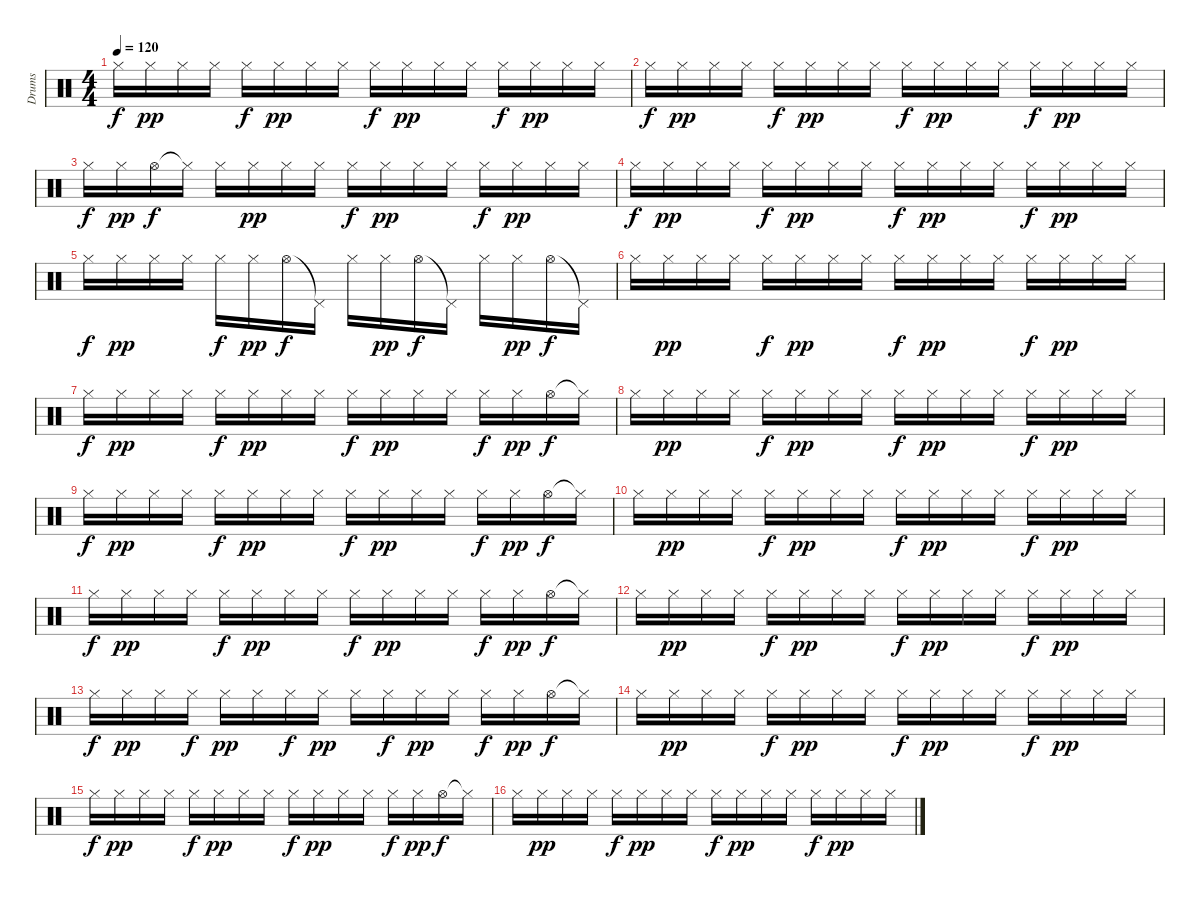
\track ("Drums" "Drums") {instrument percussion}
\staff {score}
\articulation defaults
\ts (4 4)
\tempo 120
\clef neutral
\ks c "Hi-Hat (closed)".16{dy f} "Hi-Hat (closed)".16{dy pp} "Hi-Hat (closed)".16 "Hi-Hat (closed)".16 "Hi-Hat (closed)".16{dy f} "Hi-Hat (closed)".16{dy pp} "Hi-Hat (closed)".16 "Hi-Hat (closed)".16 "Hi-Hat (closed)".16{dy f} "Hi-Hat (closed)".16{dy pp} "Hi-Hat (closed)".16 "Hi-Hat (closed)".16 "Hi-Hat (closed)".16{dy f} "Hi-Hat (closed)".16{dy pp} "Hi-Hat (closed)".16 "Hi-Hat (closed)".16
|
"Hi-Hat (closed)".16{dy f} "Hi-Hat (closed)".16{dy pp} "Hi-Hat (closed)".16 "Hi-Hat (closed)".16 "Hi-Hat (closed)".16{dy f} "Hi-Hat (closed)".16{dy pp} "Hi-Hat (closed)".16 "Hi-Hat (closed)".16 "Hi-Hat (closed)".16{dy f} "Hi-Hat (closed)".16{dy pp} "Hi-Hat (closed)".16 "Hi-Hat (closed)".16 "Hi-Hat (closed)".16{dy f} "Hi-Hat (closed)".16{dy pp} "Hi-Hat (closed)".16 "Hi-Hat (closed)".16 |
"Hi-Hat (closed)".16{dy f} "Hi-Hat (closed)".16{dy pp} "Hi-Hat (open)".16{dy f} "Hi-Hat (closed)"{t}.16 "Hi-Hat (closed)".16 "Hi-Hat (closed)".16{dy pp} "Hi-Hat (closed)".16 "Hi-Hat (closed)".16 "Hi-Hat (closed)".16{dy f} "Hi-Hat (closed)".16{dy pp} "Hi-Hat (closed)".16 "Hi-Hat (closed)".16 "Hi-Hat (closed)".16{dy f} "Hi-Hat (closed)".16{dy pp} "Hi-Hat (closed)".16 "Hi-Hat (closed)".16 |
"Hi-Hat (closed)".16{dy f} "Hi-Hat (closed)".16{dy pp} "Hi-Hat (closed)".16 "Hi-Hat (closed)".16 "Hi-Hat (closed)".16{dy f} "Hi-Hat (closed)".16{dy pp} "Hi-Hat (closed)".16 "Hi-Hat (closed)".16 "Hi-Hat (closed)".16{dy f} "Hi-Hat (closed)".16{dy pp} "Hi-Hat (closed)".16 "Hi-Hat (closed)".16 "Hi-Hat (closed)".16{dy f} "Hi-Hat (closed)".16{dy pp} "Hi-Hat (closed)".16 "Hi-Hat (closed)".16 |
"Hi-Hat (closed)".16{dy f} "Hi-Hat (closed)".16{dy pp} "Hi-Hat (closed)".16 "Hi-Hat (closed)".16 "Hi-Hat (closed)".16{dy f} "Hi-Hat (closed)".16{dy pp} "Hi-Hat (open)".16{dy f} "Pedal Hi-Hat (hit)"{t}.16 "Hi-Hat (closed)".16 "Hi-Hat (closed)".16{dy pp} "Hi-Hat (open)".16{dy f} "Pedal Hi-Hat (hit)"{t}.16 "Hi-Hat (closed)".16 "Hi-Hat (closed)".16{dy pp} "Hi-Hat (open)".16{dy f} "Pedal Hi-Hat (hit)"{t}.16 |
"Hi-Hat (closed)".16 "Hi-Hat (closed)".16{dy pp} "Hi-Hat (closed)".16 "Hi-Hat (closed)".16 "Hi-Hat (closed)".16{dy f} "Hi-Hat (closed)".16{dy pp} "Hi-Hat (closed)".16 "Hi-Hat (closed)".16 "Hi-Hat (closed)".16{dy f} "Hi-Hat (closed)".16{dy pp} "Hi-Hat (closed)".16 "Hi-Hat (closed)".16 "Hi-Hat (closed)".16{dy f} "Hi-Hat (closed)".16{dy pp} "Hi-Hat (closed)".16 "Hi-Hat (closed)".16 |
"Hi-Hat (closed)".16{dy f} "Hi-Hat (closed)".16{dy pp} "Hi-Hat (closed)".16 "Hi-Hat (closed)".16 "Hi-Hat (closed)".16{dy f} "Hi-Hat (closed)".16{dy pp} "Hi-Hat (closed)".16 "Hi-Hat (closed)".16 "Hi-Hat (closed)".16{dy f} "Hi-Hat (closed)".16{dy pp} "Hi-Hat (closed)".16 "Hi-Hat (closed)".16 "Hi-Hat (closed)".16{dy f} "Hi-Hat (closed)".16{dy pp} "Hi-Hat (open)".16{dy f} "Hi-Hat (closed)"{t}.16 |
"Hi-Hat (closed)".16 "Hi-Hat (closed)".16{dy pp} "Hi-Hat (closed)".16 "Hi-Hat (closed)".16 "Hi-Hat (closed)".16{dy f} "Hi-Hat (closed)".16{dy pp} "Hi-Hat (closed)".16 "Hi-Hat (closed)".16 "Hi-Hat (closed)".16{dy f} "Hi-Hat (closed)".16{dy pp} "Hi-Hat (closed)".16 "Hi-Hat (closed)".16 "Hi-Hat (closed)".16{dy f} "Hi-Hat (closed)".16{dy pp} "Hi-Hat (closed)".16 "Hi-Hat (closed)".16 |
"Hi-Hat (closed)".16{dy f} "Hi-Hat (closed)".16{dy pp} "Hi-Hat (closed)".16 "Hi-Hat (closed)".16 "Hi-Hat (closed)".16{dy f} "Hi-Hat (closed)".16{dy pp} "Hi-Hat (closed)".16 "Hi-Hat (closed)".16 "Hi-Hat (closed)".16{dy f} "Hi-Hat (closed)".16{dy pp} "Hi-Hat (closed)".16 "Hi-Hat (closed)".16 "Hi-Hat (closed)".16{dy f} "Hi-Hat (closed)".16{dy pp} "Hi-Hat (open)".16{dy f} "Hi-Hat (closed)"{t}.16 |
"Hi-Hat (closed)".16 "Hi-Hat (closed)".16{dy pp} "Hi-Hat (closed)".16 "Hi-Hat (closed)".16 "Hi-Hat (closed)".16{dy f} "Hi-Hat (closed)".16{dy pp} "Hi-Hat (closed)".16 "Hi-Hat (closed)".16 "Hi-Hat (closed)".16{dy f} "Hi-Hat (closed)".16{dy pp} "Hi-Hat (closed)".16 "Hi-Hat (closed)".16 "Hi-Hat (closed)".16{dy f} "Hi-Hat (closed)".16{dy pp} "Hi-Hat (closed)".16 "Hi-Hat (closed)".16 |
"Hi-Hat (closed)".16{dy f} "Hi-Hat (closed)".16{dy pp} "Hi-Hat (closed)".16 "Hi-Hat (closed)".16 "Hi-Hat (closed)".16{dy f} "Hi-Hat (closed)".16{dy pp} "Hi-Hat (closed)".16 "Hi-Hat (closed)".16 "Hi-Hat (closed)".16{dy f} "Hi-Hat (closed)".16{dy pp} "Hi-Hat (closed)".16 "Hi-Hat (closed)".16 "Hi-Hat (closed)".16{dy f} "Hi-Hat (closed)".16{dy pp} "Hi-Hat (open)".16{dy f} "Hi-Hat (closed)"{t}.16 |
"Hi-Hat (closed)".16 "Hi-Hat (closed)".16{dy pp} "Hi-Hat (closed)".16 "Hi-Hat (closed)".16 "Hi-Hat (closed)".16{dy f} "Hi-Hat (closed)".16{dy pp} "Hi-Hat (closed)".16 "Hi-Hat (closed)".16 "Hi-Hat (closed)".16{dy f} "Hi-Hat (closed)".16{dy pp} "Hi-Hat (closed)".16 "Hi-Hat (closed)".16 "Hi-Hat (closed)".16{dy f} "Hi-Hat (closed)".16{dy pp} "Hi-Hat (closed)".16 "Hi-Hat (closed)".16 |
"Hi-Hat (closed)".16{dy f} "Hi-Hat (closed)".16{dy pp} "Hi-Hat (closed)".16 "Hi-Hat (closed)".16{dy f} "Hi-Hat (closed)".16{dy pp} "Hi-Hat (closed)".16 "Hi-Hat (closed)".16{dy f} "Hi-Hat (closed)".16{dy pp} "Hi-Hat (closed)".16 "Hi-Hat (closed)".16{dy f} "Hi-Hat (closed)".16{dy pp} "Hi-Hat (closed)".16 "Hi-Hat (closed)".16{dy f} "Hi-Hat (closed)".16{dy pp} "Hi-Hat (open)".16{dy f} "Hi-Hat (closed)"{t}.16 |
"Hi-Hat (closed)".16 "Hi-Hat (closed)".16{dy pp} "Hi-Hat (closed)".16 "Hi-Hat (closed)".16 "Hi-Hat (closed)".16{dy f} "Hi-Hat (closed)".16{dy pp} "Hi-Hat (closed)".16 "Hi-Hat (closed)".16 "Hi-Hat (closed)".16{dy f} "Hi-Hat (closed)".16{dy pp} "Hi-Hat (closed)".16 "Hi-Hat (closed)".16 "Hi-Hat (closed)".16{dy f} "Hi-Hat (closed)".16{dy pp} "Hi-Hat (closed)".16 "Hi-Hat (closed)".16 |
"Hi-Hat (closed)".16{dy f} "Hi-Hat (closed)".16{dy pp} "Hi-Hat (closed)".16 "Hi-Hat (closed)".16 "Hi-Hat (closed)".16{dy f} "Hi-Hat (closed)".16{dy pp} "Hi-Hat (closed)".16 "Hi-Hat (closed)".16 "Hi-Hat (closed)".16{dy f} "Hi-Hat (closed)".16{dy pp} "Hi-Hat (closed)".16 "Hi-Hat (closed)".16 "Hi-Hat (closed)".16{dy f} "Hi-Hat (closed)".16{dy pp} "Hi-Hat (open)".16{dy f} "Hi-Hat (closed)"{t}.16 |
"Hi-Hat (closed)".16 "Hi-Hat (closed)".16{dy pp} "Hi-Hat (closed)".16 "Hi-Hat (closed)".16 "Hi-Hat (closed)".16{dy f} "Hi-Hat (closed)".16{dy pp} "Hi-Hat (closed)".16 "Hi-Hat (closed)".16 "Hi-Hat (closed)".16{dy f} "Hi-Hat (closed)".16{dy pp} "Hi-Hat (closed)".16 "Hi-Hat (closed)".16 "Hi-Hat (closed)".16{dy f} "Hi-Hat (closed)".16{dy pp} "Hi-Hat (closed)".16 "Hi-Hat (closed)".16
